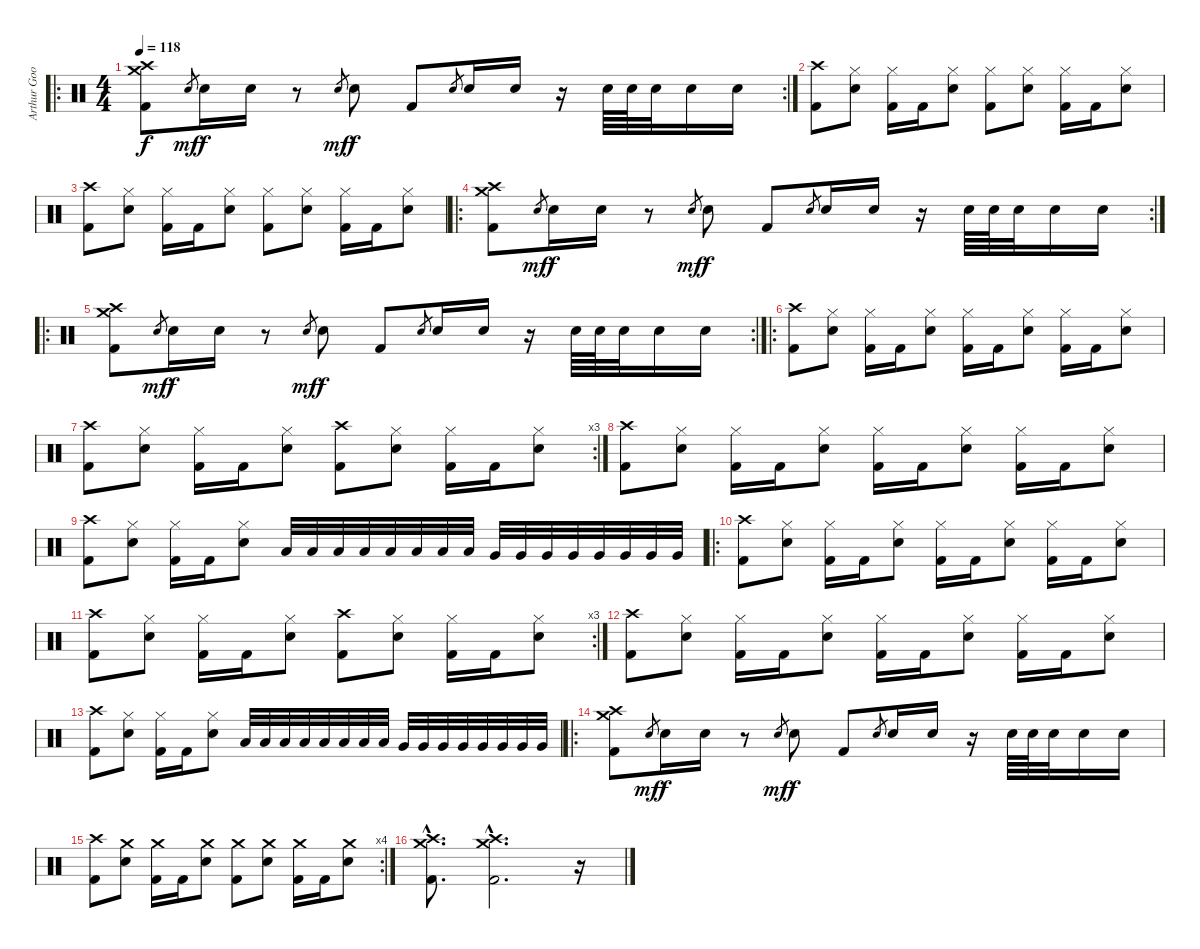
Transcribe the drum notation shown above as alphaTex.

\track ("Arthur Googy" "Arthur Goo") {instrument percussion}
\staff {score}
\articulation defaults
\ro
\rc 2
\ts (4 4)
\tempo 118
\clef neutral
\ks c
("Crash high (hit)" "Crash medium (hit)" "Kick (hit) 2").8{dy f} "Electric Snare (hit)".8{gr dy mf} "Electric Snare (hit)".16{dy f} "Electric Snare (hit)".16 r.8 "Electric Snare (hit)".8{gr dy mf} "Electric Snare (hit)".8{dy f} "Kick (hit) 2".8 "Electric Snare (hit)".8{gr} "Electric Snare (hit)".16 "Electric Snare (hit)".16 r.16 "Electric Snare (hit)".64 "Electric Snare (hit)".64 "Electric Snare (hit)".32 "Electric Snare (hit)".16 "Electric Snare (hit)".16 |
("Crash high (hit)" "Kick (hit) 2").8 ("Hi-Hat (closed)" "Electric Snare (hit)").8 ("Hi-Hat (closed)" "Kick (hit) 2").16 "Kick (hit) 2".16 ("Hi-Hat (closed)" "Electric Snare (hit)").8 ("Hi-Hat (closed)" "Kick (hit) 2").8 ("Hi-Hat (closed)" "Electric Snare (hit)").8 ("Hi-Hat (closed)" "Kick (hit) 2").16 "Kick (hit) 2".16 ("Hi-Hat (closed)" "Electric Snare (hit)").8 |
("Crash high (hit)" "Kick (hit) 2").8 ("Hi-Hat (closed)" "Electric Snare (hit)").8 ("Hi-Hat (closed)" "Kick (hit) 2").16 "Kick (hit) 2".16 ("Hi-Hat (closed)" "Electric Snare (hit)").8 ("Hi-Hat (closed)" "Kick (hit) 2").8 ("Hi-Hat (closed)" "Electric Snare (hit)").8 ("Hi-Hat (closed)" "Kick (hit) 2").16 "Kick (hit) 2".16 ("Hi-Hat (closed)" "Electric Snare (hit)").8 |
\ro
\rc 2
("Crash high (hit)" "Crash medium (hit)" "Kick (hit) 2").8 "Electric Snare (hit)".8{gr dy mf} "Electric Snare (hit)".16{dy f} "Electric Snare (hit)".16 r.8 "Electric Snare (hit)".8{gr dy mf} "Electric Snare (hit)".8{dy f} "Kick (hit) 2".8 "Electric Snare (hit)".8{gr} "Electric Snare (hit)".16 "Electric Snare (hit)".16 r.16 "Electric Snare (hit)".64 "Electric Snare (hit)".64 "Electric Snare (hit)".32 "Electric Snare (hit)".16 "Electric Snare (hit)".16 |
\ro
\rc 2
("Crash high (hit)" "Crash medium (hit)" "Kick (hit) 2").8 "Electric Snare (hit)".8{gr dy mf} "Electric Snare (hit)".16{dy f} "Electric Snare (hit)".16 r.8 "Electric Snare (hit)".8{gr dy mf} "Electric Snare (hit)".8{dy f} "Kick (hit) 2".8 "Electric Snare (hit)".8{gr} "Electric Snare (hit)".16 "Electric Snare (hit)".16 r.16 "Electric Snare (hit)".64 "Electric Snare (hit)".64 "Electric Snare (hit)".32 "Electric Snare (hit)".16 "Electric Snare (hit)".16 |
\ro
("Crash high (hit)" "Kick (hit) 2").8 ("Hi-Hat (closed)" "Electric Snare (hit)").8 ("Hi-Hat (closed)" "Kick (hit) 2").16 "Kick (hit) 2".16 ("Hi-Hat (closed)" "Electric Snare (hit)").8 ("Hi-Hat (closed)" "Kick (hit) 2").16 "Kick (hit) 2".16 ("Hi-Hat (closed)" "Electric Snare (hit)").8 ("Hi-Hat (closed)" "Kick (hit) 2").16 "Kick (hit) 2".16 ("Hi-Hat (closed)" "Electric Snare (hit)").8 |
\rc 3
("Crash high (hit)" "Kick (hit) 2").8 ("Hi-Hat (closed)" "Electric Snare (hit)").8 ("Hi-Hat (closed)" "Kick (hit) 2").16 "Kick (hit) 2".16 ("Hi-Hat (closed)" "Electric Snare (hit)").8 ("Crash high (hit)" "Kick (hit) 2").8 ("Hi-Hat (closed)" "Electric Snare (hit)").8 ("Hi-Hat (closed)" "Kick (hit) 2").16 "Kick (hit) 2".16 ("Hi-Hat (closed)" "Electric Snare (hit)").8 |
("Crash high (hit)" "Kick (hit) 2").8 ("Hi-Hat (closed)" "Electric Snare (hit)").8 ("Hi-Hat (closed)" "Kick (hit) 2").16 "Kick (hit) 2".16 ("Hi-Hat (closed)" "Electric Snare (hit)").8 ("Hi-Hat (closed)" "Kick (hit) 2").16 "Kick (hit) 2".16 ("Hi-Hat (closed)" "Electric Snare (hit)").8 ("Hi-Hat (closed)" "Kick (hit) 2").16 "Kick (hit) 2".16 ("Hi-Hat (closed)" "Electric Snare (hit)").8 |
("Crash high (hit)" "Kick (hit) 2").8 ("Hi-Hat (closed)" "Electric Snare (hit)").8 ("Hi-Hat (closed)" "Kick (hit) 2").16 "Kick (hit) 2".16 ("Hi-Hat (closed)" "Electric Snare (hit)").8 "Low Tom (hit)".32 "Low Tom (hit)".32 "Low Tom (hit)".32 "Low Tom (hit)".32 "Low Tom (hit)".32 "Low Tom (hit)".32 "Low Tom (hit)".32 "Low Tom (hit)".32 "Very Low Tom (hit)".32 "Very Low Tom (hit)".32 "Very Low Tom (hit)".32 "Very Low Tom (hit)".32 "Very Low Tom (hit)".32 "Very Low Tom (hit)".32 "Very Low Tom (hit)".32 "Very Low Tom (hit)".32 |
\ro
("Crash high (hit)" "Kick (hit) 2").8 ("Hi-Hat (closed)" "Electric Snare (hit)").8 ("Hi-Hat (closed)" "Kick (hit) 2").16 "Kick (hit) 2".16 ("Hi-Hat (closed)" "Electric Snare (hit)").8 ("Hi-Hat (closed)" "Kick (hit) 2").16 "Kick (hit) 2".16 ("Hi-Hat (closed)" "Electric Snare (hit)").8 ("Hi-Hat (closed)" "Kick (hit) 2").16 "Kick (hit) 2".16 ("Hi-Hat (closed)" "Electric Snare (hit)").8 |
\rc 3
("Crash high (hit)" "Kick (hit) 2").8 ("Hi-Hat (closed)" "Electric Snare (hit)").8 ("Hi-Hat (closed)" "Kick (hit) 2").16 "Kick (hit) 2".16 ("Hi-Hat (closed)" "Electric Snare (hit)").8 ("Crash high (hit)" "Kick (hit) 2").8 ("Hi-Hat (closed)" "Electric Snare (hit)").8 ("Hi-Hat (closed)" "Kick (hit) 2").16 "Kick (hit) 2".16 ("Hi-Hat (closed)" "Electric Snare (hit)").8 |
("Crash high (hit)" "Kick (hit) 2").8 ("Hi-Hat (closed)" "Electric Snare (hit)").8 ("Hi-Hat (closed)" "Kick (hit) 2").16 "Kick (hit) 2".16 ("Hi-Hat (closed)" "Electric Snare (hit)").8 ("Hi-Hat (closed)" "Kick (hit) 2").16 "Kick (hit) 2".16 ("Hi-Hat (closed)" "Electric Snare (hit)").8 ("Hi-Hat (closed)" "Kick (hit) 2").16 "Kick (hit) 2".16 ("Hi-Hat (closed)" "Electric Snare (hit)").8 |
("Crash high (hit)" "Kick (hit) 2").8 ("Hi-Hat (closed)" "Electric Snare (hit)").8 ("Hi-Hat (closed)" "Kick (hit) 2").16 "Kick (hit) 2".16 ("Hi-Hat (closed)" "Electric Snare (hit)").8 "Low Tom (hit)".32 "Low Tom (hit)".32 "Low Tom (hit)".32 "Low Tom (hit)".32 "Low Tom (hit)".32 "Low Tom (hit)".32 "Low Tom (hit)".32 "Low Tom (hit)".32 "Very Low Tom (hit)".32 "Very Low Tom (hit)".32 "Very Low Tom (hit)".32 "Very Low Tom (hit)".32 "Very Low Tom (hit)".32 "Very Low Tom (hit)".32 "Very Low Tom (hit)".32 "Very Low Tom (hit)".32 |
\ro
("Crash high (hit)" "Crash medium (hit)" "Kick (hit) 2").8 "Electric Snare (hit)".8{gr dy mf} "Electric Snare (hit)".16{dy f} "Electric Snare (hit)".16 r.8 "Electric Snare (hit)".8{gr dy mf} "Electric Snare (hit)".8{dy f} "Kick (hit) 2".8 "Electric Snare (hit)".8{gr} "Electric Snare (hit)".16 "Electric Snare (hit)".16 r.16 "Electric Snare (hit)".64 "Electric Snare (hit)".64 "Electric Snare (hit)".32 "Electric Snare (hit)".16 "Electric Snare (hit)".16 |
\rc 4
("Crash high (hit)" "Kick (hit) 2").8 ("Crash medium (hit)" "Electric Snare (hit)").8 ("Crash medium (hit)" "Kick (hit) 2").16 "Kick (hit) 2".16 ("Crash medium (hit)" "Electric Snare (hit)").8 ("Crash medium (hit)" "Kick (hit) 2").8 ("Crash medium (hit)" "Electric Snare (hit)").8 ("Crash medium (hit)" "Kick (hit) 2").16 "Kick (hit) 2".16 ("Crash medium (hit)" "Electric Snare (hit)").8 |
("Crash high (hit)"{hac} "Crash medium (hit)"{hac} "Kick (hit) 2"{hac}).8{d} ("Crash high (hit)"{hac} "Crash medium (hit)"{hac} "Kick (hit) 2"{hac}).2{d} r.16
